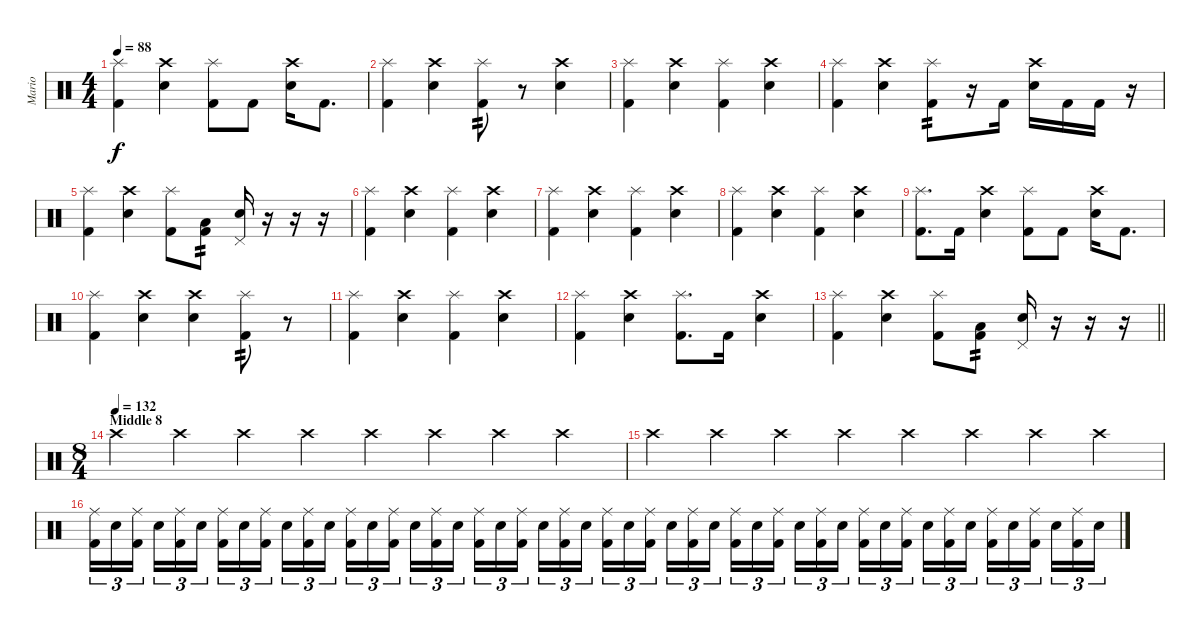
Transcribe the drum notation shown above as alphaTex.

\track ("Mario" "Mario") {instrument percussion}
\staff {score}
\articulation defaults
\ts (4 4)
\tempo 88
\clef neutral
\ks c
("Splash (hit)" "Kick (hit) 2").4{dy f} ("Crash high (hit)" "Electric Snare (hit)").4 ("Splash (hit)" "Kick (hit) 2").8 "Kick (hit) 2".8 ("Crash high (hit)" "Electric Snare (hit)").16 "Kick (hit) 2".8{d} |
("Splash (hit)" "Kick (hit) 2").4 ("Crash high (hit)" "Electric Snare (hit)").4 ("Splash (hit)" "Kick (hit) 2").8{tp 2} r.8 ("Crash high (hit)" "Electric Snare (hit)").4 |
("Splash (hit)" "Kick (hit) 2").4 ("Crash high (hit)" "Electric Snare (hit)").4 ("Splash (hit)" "Kick (hit) 2").4 ("Crash high (hit)" "Electric Snare (hit)").4 |
("Splash (hit)" "Kick (hit) 2").4 ("Crash high (hit)" "Electric Snare (hit)").4 ("Splash (hit)" "Kick (hit) 2").8{tp 2} r.16 "Kick (hit) 2".16 ("Crash high (hit)" "Electric Snare (hit)").16 "Kick (hit) 2".16 "Kick (hit) 2".16 r.16 |
("Splash (hit)" "Kick (hit) 2").4 ("Crash high (hit)" "Electric Snare (hit)").4 ("Splash (hit)" "Kick (hit) 2").8 ("Low Floor Tom (hit)" "Kick (hit) 2").8{tp 2} ("Pedal Hi-Hat (hit)" "Electric Snare (hit)").16 r.16 r.16 r.16 |
("Splash (hit)" "Kick (hit) 2").4 ("Crash high (hit)" "Electric Snare (hit)").4 ("Splash (hit)" "Kick (hit) 2").4 ("Crash high (hit)" "Electric Snare (hit)").4 |
("Splash (hit)" "Kick (hit) 2").4 ("Crash high (hit)" "Electric Snare (hit)").4 ("Splash (hit)" "Kick (hit) 2").4 ("Crash high (hit)" "Electric Snare (hit)").4 |
("Splash (hit)" "Kick (hit) 2").4 ("Crash high (hit)" "Electric Snare (hit)").4 ("Splash (hit)" "Kick (hit) 2").4 ("Crash high (hit)" "Electric Snare (hit)").4 |
("Splash (hit)" "Kick (hit) 2").8{d} "Kick (hit) 2".16 ("Crash high (hit)" "Electric Snare (hit)").4 ("Splash (hit)" "Kick (hit) 2").8 "Kick (hit) 2".8 ("Crash high (hit)" "Electric Snare (hit)").16 "Kick (hit) 2".8{d} |
("Splash (hit)" "Kick (hit) 2").4 ("Crash high (hit)" "Electric Snare (hit)").4 ("Crash high (hit)" "Electric Snare (hit)").4 ("Splash (hit)" "Kick (hit) 2").8{tp 2} r.8 |
("Splash (hit)" "Kick (hit) 2").4 ("Crash high (hit)" "Electric Snare (hit)").4 ("Splash (hit)" "Kick (hit) 2").4 ("Crash high (hit)" "Electric Snare (hit)").4 |
("Splash (hit)" "Kick (hit) 2").4 ("Crash high (hit)" "Electric Snare (hit)").4 ("Splash (hit)" "Kick (hit) 2").8{d} "Kick (hit) 2".16 ("Crash high (hit)" "Electric Snare (hit)").4 |
\barLineRight lightlight
("Splash (hit)" "Kick (hit) 2").4 ("Crash high (hit)" "Electric Snare (hit)").4 ("Splash (hit)" "Kick (hit) 2").8 ("Low Floor Tom (hit)" "Kick (hit) 2").8{tp 2} ("Pedal Hi-Hat (hit)" "Electric Snare (hit)").16 r.16 r.16 r.16 |
\ts (8 4)
\section ("" "Middle 8")
\tempo (132)
"Crash high (hit)".4{volume 13} "Crash high (hit)".4{volume 4} "Crash high (hit)".4 "Crash high (hit)".4 "Crash high (hit)".4 "Crash high (hit)".4 "Crash high (hit)".4 "Crash high (hit)".4{volume 14} |
"Crash high (hit)".4 "Crash high (hit)".4 "Crash high (hit)".4 "Crash high (hit)".4 "Crash high (hit)".4 "Crash high (hit)".4 "Crash high (hit)".4 "Crash high (hit)".4 |
("Ride (middle)" "Kick (hit) 2").16{tu (3 2) volume 13} "Electric Snare (hit)".16{tu (3 2)} ("Ride (middle)" "Kick (hit) 2").16{tu (3 2) beam splitsecondary} "Electric Snare (hit)".16{tu (3 2)} ("Ride (middle)" "Kick (hit) 2").16{tu (3 2)} "Electric Snare (hit)".16{tu (3 2)} ("Ride (middle)" "Kick (hit) 2").16{tu (3 2)} "Electric Snare (hit)".16{tu (3 2)} ("Ride (middle)" "Kick (hit) 2").16{tu (3 2) beam splitsecondary} "Electric Snare (hit)".16{tu (3 2)} ("Ride (middle)" "Kick (hit) 2").16{tu (3 2)} "Electric Snare (hit)".16{tu (3 2)} ("Ride (middle)" "Kick (hit) 2").16{tu (3 2)} "Electric Snare (hit)".16{tu (3 2)} ("Ride (middle)" "Kick (hit) 2").16{tu (3 2) beam splitsecondary} "Electric Snare (hit)".16{tu (3 2)} ("Ride (middle)" "Kick (hit) 2").16{tu (3 2)} "Electric Snare (hit)".16{tu (3 2)} ("Ride (middle)" "Kick (hit) 2").16{tu (3 2)} "Electric Snare (hit)".16{tu (3 2)} ("Ride (middle)" "Kick (hit) 2").16{tu (3 2) beam splitsecondary} "Electric Snare (hit)".16{tu (3 2)} ("Ride (middle)" "Kick (hit) 2").16{tu (3 2)} "Electric Snare (hit)".16{tu (3 2)} ("Ride (middle)" "Kick (hit) 2").16{tu (3 2)} "Electric Snare (hit)".16{tu (3 2)} ("Ride (middle)" "Kick (hit) 2").16{tu (3 2) beam splitsecondary} "Electric Snare (hit)".16{tu (3 2)} ("Ride (middle)" "Kick (hit) 2").16{tu (3 2)} "Electric Snare (hit)".16{tu (3 2)} ("Ride (middle)" "Kick (hit) 2").16{tu (3 2)} "Electric Snare (hit)".16{tu (3 2)} ("Ride (middle)" "Kick (hit) 2").16{tu (3 2) beam splitsecondary} "Electric Snare (hit)".16{tu (3 2)} ("Ride (middle)" "Kick (hit) 2").16{tu (3 2)} "Electric Snare (hit)".16{tu (3 2)} ("Ride (middle)" "Kick (hit) 2").16{tu (3 2)} "Electric Snare (hit)".16{tu (3 2)} ("Ride (middle)" "Kick (hit) 2").16{tu (3 2) beam splitsecondary} "Electric Snare (hit)".16{tu (3 2)} ("Ride (middle)" "Kick (hit) 2").16{tu (3 2)} "Electric Snare (hit)".16{tu (3 2)} ("Ride (middle)" "Kick (hit) 2").16{tu (3 2)} "Electric Snare (hit)".16{tu (3 2)} ("Ride (middle)" "Kick (hit) 2").16{tu (3 2) beam splitsecondary} "Electric Snare (hit)".16{tu (3 2)} ("Ride (middle)" "Kick (hit) 2").16{tu (3 2)} "Electric Snare (hit)".16{tu (3 2)}
